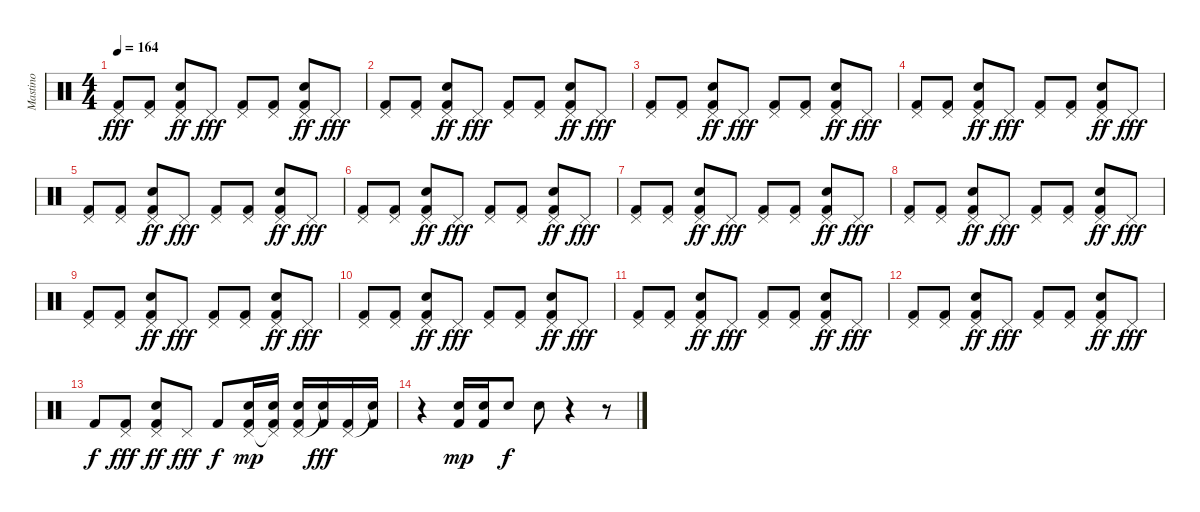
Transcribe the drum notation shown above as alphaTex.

\track ("Mastino" "Mastino") {instrument percussion}
\staff {score}
\articulation defaults
\ts (4 4)
\tempo 164
\clef neutral
\ks c
("Pedal Hi-Hat (hit)" "Kick (hit) 2").8{dy fff} ("Pedal Hi-Hat (hit)" "Kick (hit) 2").8 ("Pedal Hi-Hat (hit)" "Electric Snare (hit)" "Kick (hit) 2").8{dy ff} "Pedal Hi-Hat (hit)".8{dy fff} ("Pedal Hi-Hat (hit)" "Kick (hit) 2").8 ("Pedal Hi-Hat (hit)" "Kick (hit) 2").8 ("Pedal Hi-Hat (hit)" "Electric Snare (hit)" "Kick (hit) 2").8{dy ff} "Pedal Hi-Hat (hit)".8{dy fff} |
("Pedal Hi-Hat (hit)" "Kick (hit) 2").8 ("Pedal Hi-Hat (hit)" "Kick (hit) 2").8 ("Pedal Hi-Hat (hit)" "Electric Snare (hit)" "Kick (hit) 2").8{dy ff} "Pedal Hi-Hat (hit)".8{dy fff} ("Pedal Hi-Hat (hit)" "Kick (hit) 2").8 ("Pedal Hi-Hat (hit)" "Kick (hit) 2").8 ("Pedal Hi-Hat (hit)" "Electric Snare (hit)" "Kick (hit) 2").8{dy ff} "Pedal Hi-Hat (hit)".8{dy fff} |
("Pedal Hi-Hat (hit)" "Kick (hit) 2").8 ("Pedal Hi-Hat (hit)" "Kick (hit) 2").8 ("Pedal Hi-Hat (hit)" "Electric Snare (hit)" "Kick (hit) 2").8{dy ff} "Pedal Hi-Hat (hit)".8{dy fff} ("Pedal Hi-Hat (hit)" "Kick (hit) 2").8 ("Pedal Hi-Hat (hit)" "Kick (hit) 2").8 ("Pedal Hi-Hat (hit)" "Electric Snare (hit)" "Kick (hit) 2").8{dy ff} "Pedal Hi-Hat (hit)".8{dy fff} |
("Pedal Hi-Hat (hit)" "Kick (hit) 2").8 ("Pedal Hi-Hat (hit)" "Kick (hit) 2").8 ("Pedal Hi-Hat (hit)" "Electric Snare (hit)" "Kick (hit) 2").8{dy ff} "Pedal Hi-Hat (hit)".8{dy fff} ("Pedal Hi-Hat (hit)" "Kick (hit) 2").8 ("Pedal Hi-Hat (hit)" "Kick (hit) 2").8 ("Pedal Hi-Hat (hit)" "Electric Snare (hit)" "Kick (hit) 2").8{dy ff} "Pedal Hi-Hat (hit)".8{dy fff} |
("Pedal Hi-Hat (hit)" "Kick (hit) 2").8 ("Pedal Hi-Hat (hit)" "Kick (hit) 2").8 ("Pedal Hi-Hat (hit)" "Electric Snare (hit)" "Kick (hit) 2").8{dy ff} "Pedal Hi-Hat (hit)".8{dy fff} ("Pedal Hi-Hat (hit)" "Kick (hit) 2").8 ("Pedal Hi-Hat (hit)" "Kick (hit) 2").8 ("Pedal Hi-Hat (hit)" "Electric Snare (hit)" "Kick (hit) 2").8{dy ff} "Pedal Hi-Hat (hit)".8{dy fff} |
("Pedal Hi-Hat (hit)" "Kick (hit) 2").8 ("Pedal Hi-Hat (hit)" "Kick (hit) 2").8 ("Pedal Hi-Hat (hit)" "Electric Snare (hit)" "Kick (hit) 2").8{dy ff} "Pedal Hi-Hat (hit)".8{dy fff} ("Pedal Hi-Hat (hit)" "Kick (hit) 2").8 ("Pedal Hi-Hat (hit)" "Kick (hit) 2").8 ("Pedal Hi-Hat (hit)" "Electric Snare (hit)" "Kick (hit) 2").8{dy ff} "Pedal Hi-Hat (hit)".8{dy fff} |
("Pedal Hi-Hat (hit)" "Kick (hit) 2").8 ("Pedal Hi-Hat (hit)" "Kick (hit) 2").8 ("Pedal Hi-Hat (hit)" "Electric Snare (hit)" "Kick (hit) 2").8{dy ff} "Pedal Hi-Hat (hit)".8{dy fff} ("Pedal Hi-Hat (hit)" "Kick (hit) 2").8 ("Pedal Hi-Hat (hit)" "Kick (hit) 2").8 ("Pedal Hi-Hat (hit)" "Electric Snare (hit)" "Kick (hit) 2").8{dy ff} "Pedal Hi-Hat (hit)".8{dy fff} |
("Pedal Hi-Hat (hit)" "Kick (hit) 2").8 ("Pedal Hi-Hat (hit)" "Kick (hit) 2").8 ("Pedal Hi-Hat (hit)" "Electric Snare (hit)" "Kick (hit) 2").8{dy ff} "Pedal Hi-Hat (hit)".8{dy fff} ("Pedal Hi-Hat (hit)" "Kick (hit) 2").8 ("Pedal Hi-Hat (hit)" "Kick (hit) 2").8 ("Pedal Hi-Hat (hit)" "Electric Snare (hit)" "Kick (hit) 2").8{dy ff} "Pedal Hi-Hat (hit)".8{dy fff} |
("Pedal Hi-Hat (hit)" "Kick (hit) 2").8 ("Pedal Hi-Hat (hit)" "Kick (hit) 2").8 ("Pedal Hi-Hat (hit)" "Electric Snare (hit)" "Kick (hit) 2").8{dy ff} "Pedal Hi-Hat (hit)".8{dy fff} ("Pedal Hi-Hat (hit)" "Kick (hit) 2").8 ("Pedal Hi-Hat (hit)" "Kick (hit) 2").8 ("Pedal Hi-Hat (hit)" "Electric Snare (hit)" "Kick (hit) 2").8{dy ff} "Pedal Hi-Hat (hit)".8{dy fff} |
("Pedal Hi-Hat (hit)" "Kick (hit) 2").8 ("Pedal Hi-Hat (hit)" "Kick (hit) 2").8 ("Pedal Hi-Hat (hit)" "Electric Snare (hit)" "Kick (hit) 2").8{dy ff} "Pedal Hi-Hat (hit)".8{dy fff} ("Pedal Hi-Hat (hit)" "Kick (hit) 2").8 ("Pedal Hi-Hat (hit)" "Kick (hit) 2").8 ("Pedal Hi-Hat (hit)" "Electric Snare (hit)" "Kick (hit) 2").8{dy ff} "Pedal Hi-Hat (hit)".8{dy fff} |
("Pedal Hi-Hat (hit)" "Kick (hit) 2").8 ("Pedal Hi-Hat (hit)" "Kick (hit) 2").8 ("Pedal Hi-Hat (hit)" "Electric Snare (hit)" "Kick (hit) 2").8{dy ff} "Pedal Hi-Hat (hit)".8{dy fff} ("Pedal Hi-Hat (hit)" "Kick (hit) 2").8 ("Pedal Hi-Hat (hit)" "Kick (hit) 2").8 ("Pedal Hi-Hat (hit)" "Electric Snare (hit)" "Kick (hit) 2").8{dy ff} "Pedal Hi-Hat (hit)".8{dy fff} |
("Pedal Hi-Hat (hit)" "Kick (hit) 2").8 ("Pedal Hi-Hat (hit)" "Kick (hit) 2").8 ("Pedal Hi-Hat (hit)" "Electric Snare (hit)" "Kick (hit) 2").8{dy ff} "Pedal Hi-Hat (hit)".8{dy fff} ("Pedal Hi-Hat (hit)" "Kick (hit) 2").8 ("Pedal Hi-Hat (hit)" "Kick (hit) 2").8 ("Pedal Hi-Hat (hit)" "Electric Snare (hit)" "Kick (hit) 2").8{dy ff} "Pedal Hi-Hat (hit)".8{dy fff} |
"Kick (hit) 2".8{dy f} ("Pedal Hi-Hat (hit)" "Kick (hit) 2").8{dy fff} ("Pedal Hi-Hat (hit)" "Electric Snare (hit)" "Kick (hit) 2").8{dy ff} "Pedal Hi-Hat (hit)".8{dy fff} "Kick (hit) 2".8{dy f} ("Pedal Hi-Hat (hit)" "Electric Snare (hit)" "Kick (hit) 2").16{dy mp} ("Pedal Hi-Hat (hit)"{t} "Electric Snare (hit)" "Kick (hit) 2").16 ("Pedal Hi-Hat (hit)" "Electric Snare (hit)" "Kick (hit) 2").16 ("Snare (hit)"{t} "Kick (hit) 2").16{dy fff} ("Pedal Hi-Hat (hit)" "Kick (hit) 2").16 ("Snare (hit)"{t} "Kick (hit) 2").16 |
r.4 ("Electric Snare (hit)" "Kick (hit) 2").16{dy mp} ("Electric Snare (hit)" "Kick (hit) 2").16 "Electric Snare (hit)".8{dy f} "Electric Snare (hit)".8 r.4 r.8
